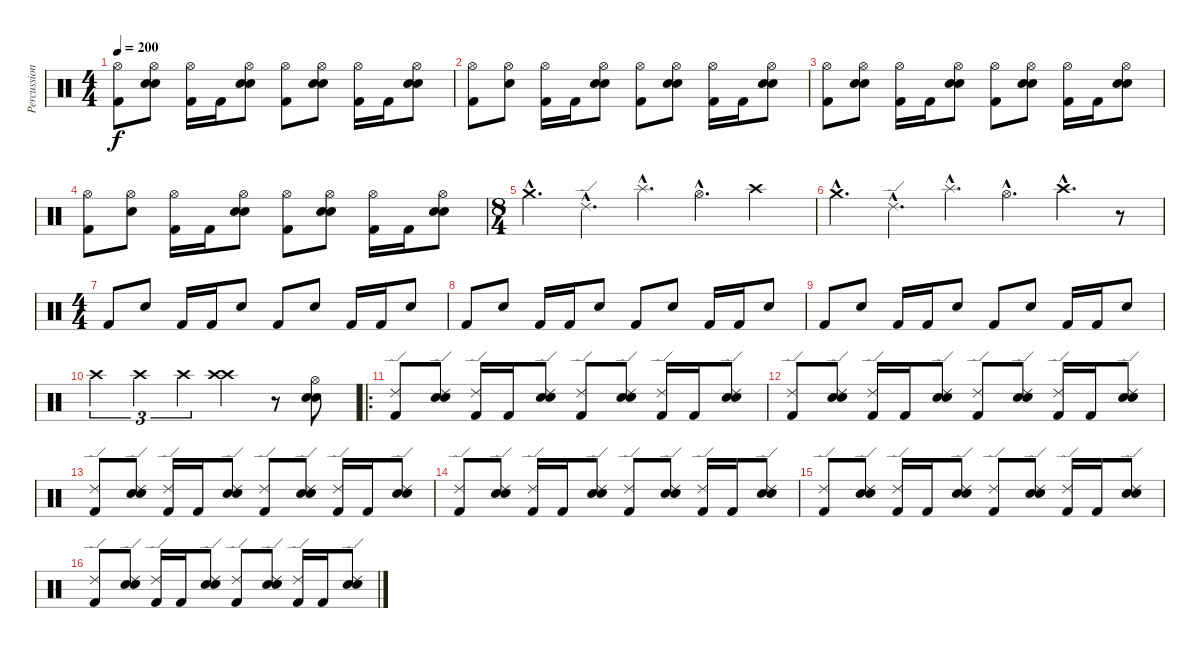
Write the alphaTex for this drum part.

\track ("Percussion" "Percussion") {instrument percussion}
\staff {score}
\articulation defaults
\ts (4 4)
\tempo 200
\clef neutral
\ks c
("Hi-Hat (open)" "Kick (hit) 2").8{dy f} ("Hi-Hat (open)" "Electric Snare (hit)" "Electric Snare (hit)").8 ("Hi-Hat (open)" "Kick (hit) 2").16 "Kick (hit) 2".16 ("Hi-Hat (open)" "Electric Snare (hit)" "Electric Snare (hit)").8 ("Hi-Hat (open)" "Kick (hit) 2").8 ("Hi-Hat (open)" "Electric Snare (hit)" "Electric Snare (hit)").8 ("Hi-Hat (open)" "Kick (hit) 2").16 "Kick (hit) 2".16 ("Hi-Hat (open)" "Electric Snare (hit)" "Electric Snare (hit)").8 |
("Hi-Hat (open)" "Kick (hit) 2").8 ("Hi-Hat (open)" "Electric Snare (hit)").8 ("Hi-Hat (open)" "Kick (hit) 2").16 "Kick (hit) 2".16 ("Hi-Hat (open)" "Electric Snare (hit)" "Electric Snare (hit)").8 ("Hi-Hat (open)" "Kick (hit) 2").8 ("Hi-Hat (open)" "Electric Snare (hit)" "Electric Snare (hit)").8 ("Hi-Hat (open)" "Kick (hit) 2").16 "Kick (hit) 2".16 ("Hi-Hat (open)" "Electric Snare (hit)" "Electric Snare (hit)").8 |
("Hi-Hat (open)" "Kick (hit) 2").8 ("Hi-Hat (open)" "Electric Snare (hit)" "Electric Snare (hit)").8 ("Hi-Hat (open)" "Kick (hit) 2").16 "Kick (hit) 2".16 ("Hi-Hat (open)" "Electric Snare (hit)" "Electric Snare (hit)").8 ("Hi-Hat (open)" "Kick (hit) 2").8 ("Hi-Hat (open)" "Electric Snare (hit)" "Electric Snare (hit)").8 ("Hi-Hat (open)" "Kick (hit) 2").16 "Kick (hit) 2".16 ("Hi-Hat (open)" "Electric Snare (hit)" "Electric Snare (hit)").8 |
("Hi-Hat (open)" "Kick (hit) 2").8 ("Hi-Hat (open)" "Electric Snare (hit)").8 ("Hi-Hat (open)" "Kick (hit) 2").16 "Kick (hit) 2".16 ("Hi-Hat (open)" "Electric Snare (hit)" "Electric Snare (hit)").8 ("Hi-Hat (open)" "Kick (hit) 2").8 ("Hi-Hat (open)" "Electric Snare (hit)" "Electric Snare (hit)").8 ("Hi-Hat (open)" "Kick (hit) 2").16 "Kick (hit) 2".16 ("Hi-Hat (open)" "Electric Snare (hit)" "Electric Snare (hit)").8 |
\ts (8 4)
"Crash medium (hit)"{hac}.4{d} "Ride (edge) 2"{hac}.4{d} "Splash (hit)"{hac}.4{d} "Hi-Hat (open)"{hac}.4{d} "Crash high (hit)".2 |
"Crash medium (hit)"{hac}.4{d} "Ride (edge) 2"{hac}.4{d} "Splash (hit)"{hac}.4{d} "Hi-Hat (open)"{hac}.4{d} "Crash high (hit)"{hac}.4{d} r.8 |
\ts (4 4)
"Kick (hit) 2".8 "Electric Snare (hit)".8 "Kick (hit) 2".16 "Kick (hit) 2".16 "Electric Snare (hit)".8 "Kick (hit) 2".8 "Electric Snare (hit)".8 "Kick (hit) 2".16 "Kick (hit) 2".16 "Electric Snare (hit)".8 |
"Kick (hit) 2".8 "Electric Snare (hit)".8 "Kick (hit) 2".16 "Kick (hit) 2".16 "Electric Snare (hit)".8 "Kick (hit) 2".8 "Electric Snare (hit)".8 "Kick (hit) 2".16 "Kick (hit) 2".16 "Electric Snare (hit)".8 |
"Kick (hit) 2".8 "Electric Snare (hit)".8 "Kick (hit) 2".16 "Kick (hit) 2".16 "Electric Snare (hit)".8 "Kick (hit) 2".8 "Electric Snare (hit)".8 "Kick (hit) 2".16 "Kick (hit) 2".16 "Electric Snare (hit)".8 |
"Crash high (hit)".4{tu (3 2)} "Crash high (hit)".4{tu (3 2)} "Crash high (hit)".4{tu (3 2)} ("Crash high (hit)" "Crash high (hit)").4 r.8 ("Hi-Hat (open)" "Electric Snare (hit)" "Electric Snare (hit)").8 |
\ro
("Ride (edge) 2" "Kick (hit) 2").8 ("Ride (edge) 2" "Electric Snare (hit)" "Electric Snare (hit)").8 ("Ride (edge) 2" "Kick (hit) 2").16 "Kick (hit) 2".16 ("Ride (edge) 2" "Electric Snare (hit)" "Electric Snare (hit)").8 ("Ride (edge) 2" "Kick (hit) 2").8 ("Ride (edge) 2" "Electric Snare (hit)" "Electric Snare (hit)").8 ("Ride (edge) 2" "Kick (hit) 2").16 "Kick (hit) 2".16 ("Ride (edge) 2" "Electric Snare (hit)" "Electric Snare (hit)").8 |
("Ride (edge) 2" "Kick (hit) 2").8 ("Ride (edge) 2" "Electric Snare (hit)" "Electric Snare (hit)").8 ("Ride (edge) 2" "Kick (hit) 2").16 "Kick (hit) 2".16 ("Ride (edge) 2" "Electric Snare (hit)" "Electric Snare (hit)").8 ("Ride (edge) 2" "Kick (hit) 2").8 ("Ride (edge) 2" "Electric Snare (hit)" "Electric Snare (hit)").8 ("Ride (edge) 2" "Kick (hit) 2").16 "Kick (hit) 2".16 ("Ride (edge) 2" "Electric Snare (hit)" "Electric Snare (hit)").8 |
("Ride (edge) 2" "Kick (hit) 2").8 ("Ride (edge) 2" "Electric Snare (hit)" "Electric Snare (hit)").8 ("Ride (edge) 2" "Kick (hit) 2").16 "Kick (hit) 2".16 ("Ride (edge) 2" "Electric Snare (hit)" "Electric Snare (hit)").8 ("Ride (edge) 2" "Kick (hit) 2").8 ("Ride (edge) 2" "Electric Snare (hit)" "Electric Snare (hit)").8 ("Ride (edge) 2" "Kick (hit) 2").16 "Kick (hit) 2".16 ("Ride (edge) 2" "Electric Snare (hit)" "Electric Snare (hit)").8 |
("Ride (edge) 2" "Kick (hit) 2").8 ("Ride (edge) 2" "Electric Snare (hit)" "Electric Snare (hit)").8 ("Ride (edge) 2" "Kick (hit) 2").16 "Kick (hit) 2".16 ("Ride (edge) 2" "Electric Snare (hit)" "Electric Snare (hit)").8 ("Ride (edge) 2" "Kick (hit) 2").8 ("Ride (edge) 2" "Electric Snare (hit)" "Electric Snare (hit)").8 ("Ride (edge) 2" "Kick (hit) 2").16 "Kick (hit) 2".16 ("Ride (edge) 2" "Electric Snare (hit)" "Electric Snare (hit)").8 |
("Ride (edge) 2" "Kick (hit) 2").8 ("Ride (edge) 2" "Electric Snare (hit)" "Electric Snare (hit)").8 ("Ride (edge) 2" "Kick (hit) 2").16 "Kick (hit) 2".16 ("Ride (edge) 2" "Electric Snare (hit)" "Electric Snare (hit)").8 ("Ride (edge) 2" "Kick (hit) 2").8 ("Ride (edge) 2" "Electric Snare (hit)" "Electric Snare (hit)").8 ("Ride (edge) 2" "Kick (hit) 2").16 "Kick (hit) 2".16 ("Ride (edge) 2" "Electric Snare (hit)" "Electric Snare (hit)").8 |
("Ride (edge) 2" "Kick (hit) 2").8 ("Ride (edge) 2" "Electric Snare (hit)" "Electric Snare (hit)").8 ("Ride (edge) 2" "Kick (hit) 2").16 "Kick (hit) 2".16 ("Ride (edge) 2" "Electric Snare (hit)" "Electric Snare (hit)").8 ("Ride (edge) 2" "Kick (hit) 2").8 ("Ride (edge) 2" "Electric Snare (hit)" "Electric Snare (hit)").8 ("Ride (edge) 2" "Kick (hit) 2").16 "Kick (hit) 2".16 ("Ride (edge) 2" "Electric Snare (hit)" "Electric Snare (hit)").8
